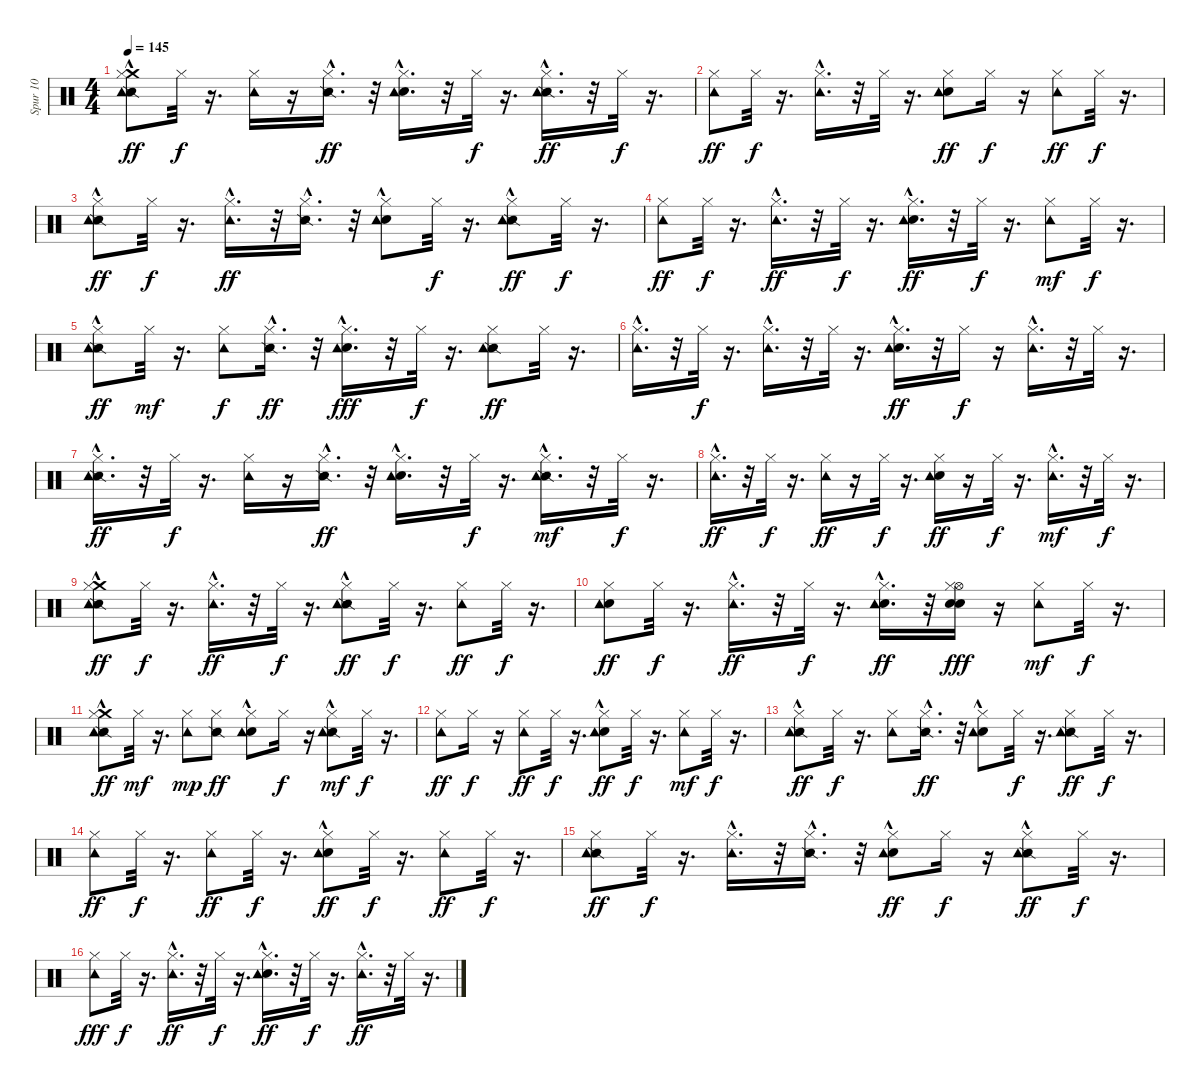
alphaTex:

\track ("Spur 10" "Spur 10") {instrument percussion}
\staff {score}
\articulation defaults
\ts (4 4)
\tempo 145
\clef neutral
\ks c
("Snare (side stick) 2"{hac} "Crash medium (hit)" "Tambourine (hit)"{hac} "Hi-Hat (closed)").8{dy ff} "Hi-Hat (closed)".32{dy f} r.16{d} ("Tambourine (hit)" "Hi-Hat (closed)").16 r.16 ("Snare (side stick) 2"{hac} "Hi-Hat (closed)").16{d dy ff} r.32 ("Electric Snare (hit)"{hac} "Tambourine (hit)" "Hi-Hat (closed)").16{d} r.32 "Hi-Hat (closed)".32{dy f} r.16{d} ("Snare (side stick) 2"{hac} "Tambourine (hit)"{hac} "Hi-Hat (closed)").16{d dy ff} r.32 "Hi-Hat (closed)".32{dy f} r.16{d} |
("Tambourine (hit)" "Hi-Hat (closed)").8{dy ff} "Hi-Hat (closed)".32{dy f} r.16{d} ("Tambourine (hit)"{hac} "Hi-Hat (closed)").16{d} r.32 "Hi-Hat (closed)".32 r.16{d} ("Electric Snare (hit)" "Tambourine (hit)" "Hi-Hat (closed)").8{dy ff} "Hi-Hat (closed)".16{dy f} r.16 ("Tambourine (hit)" "Hi-Hat (closed)").8{dy ff} "Hi-Hat (closed)".32{dy f} r.16{d} |
("Snare (side stick) 2"{hac} "Tambourine (hit)" "Hi-Hat (closed)").8{dy ff} "Hi-Hat (closed)".32{dy f} r.16{d} ("Tambourine (hit)"{hac} "Hi-Hat (closed)").16{d dy ff} r.32 ("Snare (side stick) 2"{hac} "Hi-Hat (closed)").16{d} r.32 ("Electric Snare (hit)"{hac} "Tambourine (hit)" "Hi-Hat (closed)").8 "Hi-Hat (closed)".32{dy f} r.16{d} ("Snare (side stick) 2"{hac} "Tambourine (hit)" "Hi-Hat (closed)").8{dy ff} "Hi-Hat (closed)".32{dy f} r.16{d} |
("Tambourine (hit)" "Hi-Hat (closed)").8{dy ff} "Hi-Hat (closed)".32{dy f} r.16{d} ("Tambourine (hit)"{hac} "Hi-Hat (closed)").16{d dy ff} r.32 "Hi-Hat (closed)".32{dy f} r.16{d} ("Electric Snare (hit)" "Tambourine (hit)"{hac} "Hi-Hat (closed)").16{d dy ff} r.32 "Hi-Hat (closed)".32{dy f} r.16{d} ("Tambourine (hit)" "Hi-Hat (closed)").8{dy mf} "Hi-Hat (closed)".32{dy f} r.16{d} |
("Snare (side stick) 2"{hac} "Tambourine (hit)" "Hi-Hat (closed)").8{dy ff} "Hi-Hat (closed)".32{dy mf} r.16{d} ("Tambourine (hit)" "Hi-Hat (closed)").8{dy f} ("Snare (side stick) 2"{hac} "Hi-Hat (closed)").16{d dy ff} r.32 ("Electric Snare (hit)"{hac} "Tambourine (hit)"{hac} "Hi-Hat (closed)").16{d dy fff} r.32 "Hi-Hat (closed)".32{dy f} r.16{d} ("Snare (side stick) 2" "Tambourine (hit)" "Hi-Hat (closed)").8{dy ff} "Hi-Hat (closed)".32 r.16{d} |
("Tambourine (hit)"{hac} "Hi-Hat (closed)").16{d} r.32 "Hi-Hat (closed)".32{dy f} r.16{d} ("Tambourine (hit)"{hac} "Hi-Hat (closed)").16{d} r.32 "Hi-Hat (closed)".32 r.16{d} ("Electric Snare (hit)"{hac} "Tambourine (hit)"{hac} "Hi-Hat (closed)").16{d dy ff} r.32 "Hi-Hat (closed)".16{dy f} r.16 ("Tambourine (hit)"{hac} "Hi-Hat (closed)").16{d} r.32 "Hi-Hat (closed)".32 r.16{d} |
("Snare (side stick) 2"{hac} "Tambourine (hit)"{hac} "Hi-Hat (closed)").16{d dy ff} r.32 "Hi-Hat (closed)".32{dy f} r.16{d} ("Tambourine (hit)" "Hi-Hat (closed)").16 r.16 ("Snare (side stick) 2"{hac} "Hi-Hat (closed)").16{d dy ff} r.32 ("Electric Snare (hit)"{hac} "Tambourine (hit)"{hac} "Hi-Hat (closed)").16{d} r.32 "Hi-Hat (closed)".32{dy f} r.16{d} ("Snare (side stick) 2"{hac} "Tambourine (hit)"{hac} "Hi-Hat (closed)").16{d dy mf} r.32 "Hi-Hat (closed)".32{dy f} r.16{d} |
("Tambourine (hit)"{hac} "Hi-Hat (closed)").16{d dy ff} r.32 "Hi-Hat (closed)".32{dy f} r.16{d} ("Tambourine (hit)" "Hi-Hat (closed)").16{dy ff} r.16 "Hi-Hat (closed)".32{dy f} r.16{d} ("Electric Snare (hit)" "Tambourine (hit)" "Hi-Hat (closed)").16{dy ff} r.16 "Hi-Hat (closed)".32{dy f} r.16{d} ("Tambourine (hit)"{hac} "Hi-Hat (closed)").16{d dy mf} r.32 "Hi-Hat (closed)".32{dy f} r.16{d} |
("Snare (side stick) 2"{hac} "Crash medium (hit)" "Tambourine (hit)" "Hi-Hat (closed)").8{dy ff} "Hi-Hat (closed)".32{dy f} r.16{d} ("Tambourine (hit)"{hac} "Hi-Hat (closed)").16{d dy ff} r.32 "Hi-Hat (closed)".32{dy f} r.16{d} ("Snare (side stick) 2"{hac} "Tambourine (hit)" "Hi-Hat (closed)").8{dy ff} "Hi-Hat (closed)".32{dy f} r.16{d} ("Tambourine (hit)" "Hi-Hat (closed)").8{dy ff} "Hi-Hat (closed)".32{dy f} r.16{d} |
("Electric Snare (hit)" "Tambourine (hit)" "Hi-Hat (closed)").8{dy ff} "Hi-Hat (closed)".32{dy f} r.16{d} ("Tambourine (hit)"{hac} "Hi-Hat (closed)").16{d dy ff} r.32 "Hi-Hat (closed)".32{dy f} r.16{d} ("Snare (hit) 2" "Tambourine (hit)"{hac} "Hi-Hat (closed)").16{d dy ff} r.32 ("Hand Clap (hit)" "Snare (hit) 2" "Hi-Hat (open)" "Hi-Hat (closed)").16{dy fff} r.16 ("Tambourine (hit)" "Hi-Hat (closed)").8{dy mf} "Hi-Hat (closed)".32{dy f} r.16{d} |
("Crash medium (hit)"{hac} "Snare (side stick) 2" "Tambourine (hit)" "Hi-Hat (closed)").8{dy ff} "Hi-Hat (closed)".32{dy mf} r.16{d} ("Tambourine (hit)" "Hi-Hat (closed)").8{dy mp} ("Snare (side stick) 2" "Hi-Hat (closed)").8{dy ff} ("Electric Snare (hit)"{hac} "Tambourine (hit)" "Hi-Hat (closed)").8 "Hi-Hat (closed)".16{dy f} r.16 ("Snare (side stick) 2"{hac} "Tambourine (hit)" "Hi-Hat (closed)").8{dy mf} "Hi-Hat (closed)".32{dy f} r.16{d} |
("Tambourine (hit)" "Hi-Hat (closed)").8{dy ff} "Hi-Hat (closed)".16{dy f} r.16 ("Hi-Hat (closed)" "Tambourine (hit)").8{dy ff} "Hi-Hat (closed)".32{dy f} r.16{d} ("Electric Snare (hit)"{hac} "Tambourine (hit)" "Hi-Hat (closed)").8{dy ff} "Hi-Hat (closed)".32{dy f} r.16{d} ("Tambourine (hit)" "Hi-Hat (closed)").8{dy mf} "Hi-Hat (closed)".32{dy f} r.16{d} |
("Snare (side stick) 2"{hac} "Tambourine (hit)" "Hi-Hat (closed)").8{dy ff} "Hi-Hat (closed)".32{dy f} r.16{d} ("Tambourine (hit)" "Hi-Hat (closed)").8 ("Snare (side stick) 2"{hac} "Hi-Hat (closed)").16{d dy ff} r.32 ("Electric Snare (hit)"{hac} "Tambourine (hit)" "Hi-Hat (closed)").8 "Hi-Hat (closed)".32{dy f} r.16{d} ("Snare (side stick) 2" "Tambourine (hit)" "Hi-Hat (closed)").8{dy ff} "Hi-Hat (closed)".32{dy f} r.16{d} |
("Tambourine (hit)" "Hi-Hat (closed)").8{dy ff} "Hi-Hat (closed)".32{dy f} r.16{d} ("Tambourine (hit)" "Hi-Hat (closed)").8{dy ff} "Hi-Hat (closed)".32{dy f} r.16{d} ("Electric Snare (hit)"{hac} "Tambourine (hit)" "Hi-Hat (closed)").8{dy ff} "Hi-Hat (closed)".32{dy f} r.16{d} ("Tambourine (hit)" "Hi-Hat (closed)").8{dy ff} "Hi-Hat (closed)".32{dy f} r.16{d} |
("Snare (side stick) 2" "Tambourine (hit)" "Hi-Hat (closed)").8{dy ff} "Hi-Hat (closed)".32{dy f} r.16{d} ("Tambourine (hit)"{hac} "Hi-Hat (closed)").16{d} r.32 ("Snare (side stick) 2"{hac} "Hi-Hat (closed)").16{d} r.32 ("Electric Snare (hit)"{hac} "Tambourine (hit)" "Hi-Hat (closed)").8{dy ff} "Hi-Hat (closed)".16{dy f} r.16 ("Snare (side stick) 2"{hac} "Tambourine (hit)" "Hi-Hat (closed)").8{dy ff} "Hi-Hat (closed)".32{dy f} r.16{d} |
("Tambourine (hit)" "Hi-Hat (closed)").8{dy fff} "Hi-Hat (closed)".32{dy f} r.16{d} ("Tambourine (hit)"{hac} "Hi-Hat (closed)").16{d dy ff} r.32 "Hi-Hat (closed)".32{dy f} r.16{d} ("Electric Snare (hit)" "Tambourine (hit)"{hac} "Hi-Hat (closed)").16{d dy ff} r.32 "Hi-Hat (closed)".32{dy f} r.16{d} ("Tambourine (hit)"{hac} "Hi-Hat (closed)").16{d dy ff} r.32 "Hi-Hat (closed)".32 r.16{d}
